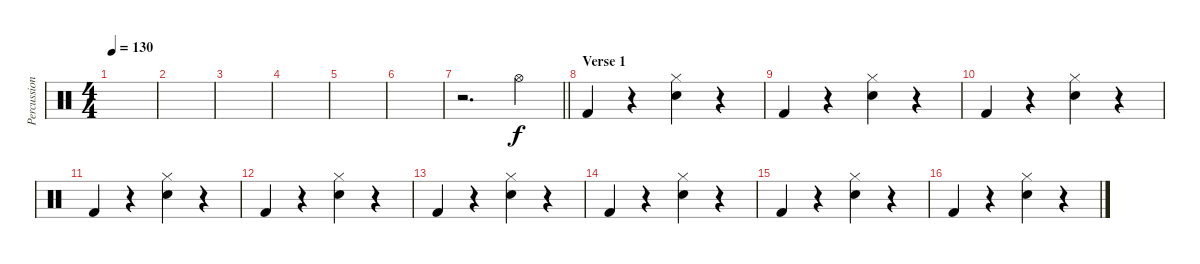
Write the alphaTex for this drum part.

\track ("Percussion" "Percussion") {instrument percussion}
\staff {score}
\articulation defaults
\ts (4 4)
\tempo 130
\clef neutral
\ks c
|
|
|
|
|
|
\barLineRight lightlight
r.2{d} "Hi-Hat (open)".4 |
\section ("" "Verse 1")
"Kick (hit) 2".4 r.4 ("Hi-Hat (closed)" "Snare (hit) 2").4 r.4 |
"Kick (hit) 2".4 r.4 ("Hi-Hat (closed)" "Snare (hit) 2").4 r.4 |
"Kick (hit) 2".4 r.4 ("Hi-Hat (closed)" "Snare (hit) 2").4 r.4 |
"Kick (hit) 2".4 r.4 ("Hi-Hat (closed)" "Snare (hit) 2").4 r.4 |
"Kick (hit) 2".4 r.4 ("Hi-Hat (closed)" "Snare (hit) 2").4 r.4 |
"Kick (hit) 2".4 r.4 ("Hi-Hat (closed)" "Snare (hit) 2").4 r.4 |
"Kick (hit) 2".4 r.4 ("Hi-Hat (closed)" "Snare (hit) 2").4 r.4 |
"Kick (hit) 2".4 r.4 ("Hi-Hat (closed)" "Snare (hit) 2").4 r.4 |
"Kick (hit) 2".4 r.4 ("Hi-Hat (closed)" "Snare (hit) 2").4 r.4
